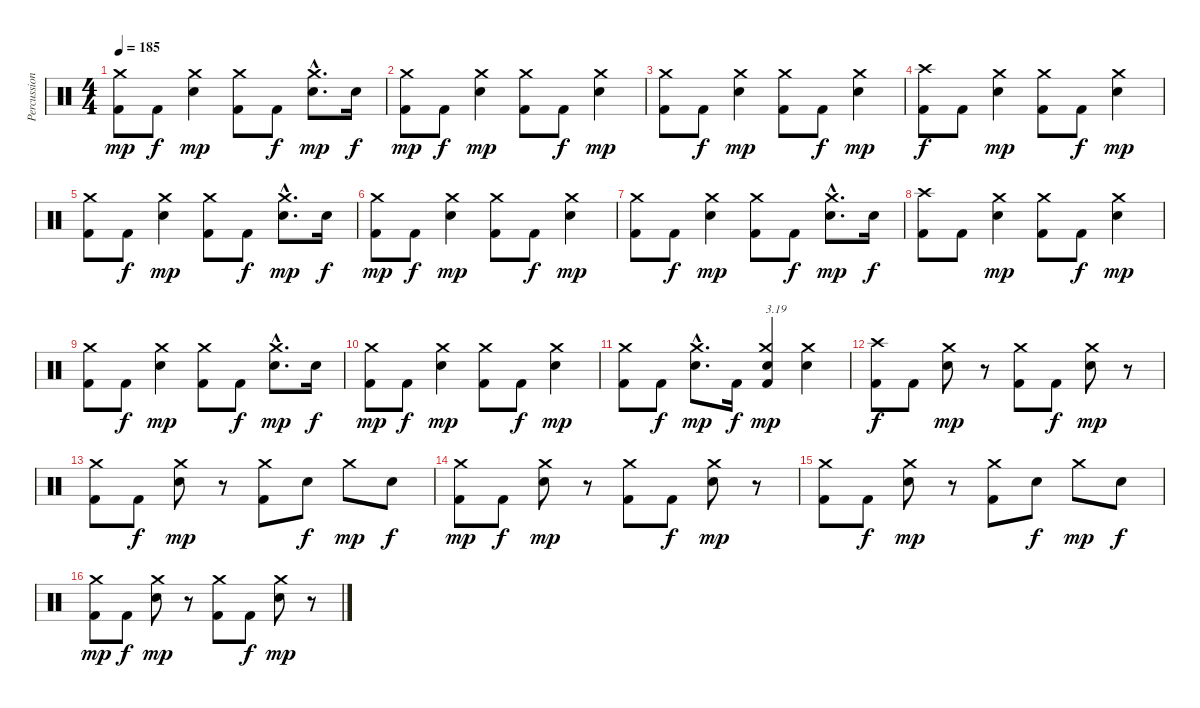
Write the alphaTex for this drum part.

\track ("Percussions" "Percussion") {instrument percussion}
\staff {score}
\articulation defaults
\ts (4 4)
\tempo 185
\clef neutral
\ks c
("Kick (hit) 2" "Crash medium (hit)").8{dy mp} "Kick (hit) 2".8{dy f} ("Electric Snare (hit)" "Crash medium (hit)").4{dy mp} ("Kick (hit) 2" "Crash medium (hit)").8 "Kick (hit) 2".8{dy f} ("Electric Snare (hit)"{hac} "Crash medium (hit)"{hac}).8{d dy mp} "Electric Snare (hit)".16{dy f} |
("Kick (hit) 2" "Crash medium (hit)").8{dy mp} "Kick (hit) 2".8{dy f} ("Electric Snare (hit)" "Crash medium (hit)").4{dy mp} ("Kick (hit) 2" "Crash medium (hit)").8 "Kick (hit) 2".8{dy f} ("Electric Snare (hit)" "Crash medium (hit)").4{dy mp} |
("Kick (hit) 2" "Crash medium (hit)").8 "Kick (hit) 2".8{dy f} ("Electric Snare (hit)" "Crash medium (hit)").4{dy mp} ("Kick (hit) 2" "Crash medium (hit)").8 "Kick (hit) 2".8{dy f} ("Electric Snare (hit)" "Crash medium (hit)").4{dy mp} |
("Kick (hit) 2" "Crash high (hit)").8{dy f} "Kick (hit) 2".8 ("Electric Snare (hit)" "Crash medium (hit)").4{dy mp} ("Kick (hit) 2" "Crash medium (hit)").8 "Kick (hit) 2".8{dy f} ("Electric Snare (hit)" "Crash medium (hit)").4{dy mp} |
("Kick (hit) 2" "Crash medium (hit)").8 "Kick (hit) 2".8{dy f} ("Electric Snare (hit)" "Crash medium (hit)").4{dy mp} ("Kick (hit) 2" "Crash medium (hit)").8 "Kick (hit) 2".8{dy f} ("Electric Snare (hit)"{hac} "Crash medium (hit)"{hac}).8{d dy mp} "Electric Snare (hit)".16{dy f} |
("Kick (hit) 2" "Crash medium (hit)").8{dy mp} "Kick (hit) 2".8{dy f} ("Electric Snare (hit)" "Crash medium (hit)").4{dy mp} ("Kick (hit) 2" "Crash medium (hit)").8 "Kick (hit) 2".8{dy f} ("Electric Snare (hit)" "Crash medium (hit)").4{dy mp} |
("Kick (hit) 2" "Crash medium (hit)").8 "Kick (hit) 2".8{dy f} ("Electric Snare (hit)" "Crash medium (hit)").4{dy mp} ("Kick (hit) 2" "Crash medium (hit)").8 "Kick (hit) 2".8{dy f} ("Electric Snare (hit)"{hac} "Crash medium (hit)"{hac}).8{d dy mp} "Electric Snare (hit)".16{dy f} |
("Kick (hit) 2" "Crash high (hit)").8 "Kick (hit) 2".8 ("Electric Snare (hit)" "Crash medium (hit)").4{dy mp} ("Kick (hit) 2" "Crash medium (hit)").8 "Kick (hit) 2".8{dy f} ("Electric Snare (hit)" "Crash medium (hit)").4{dy mp} |
("Kick (hit) 2" "Crash medium (hit)").8 "Kick (hit) 2".8{dy f} ("Electric Snare (hit)" "Crash medium (hit)").4{dy mp} ("Kick (hit) 2" "Crash medium (hit)").8 "Kick (hit) 2".8{dy f} ("Electric Snare (hit)"{hac} "Crash medium (hit)"{hac}).8{d dy mp} "Electric Snare (hit)".16{dy f} |
("Kick (hit) 2" "Crash medium (hit)").8{dy mp} "Kick (hit) 2".8{dy f} ("Electric Snare (hit)" "Crash medium (hit)").4{dy mp} ("Kick (hit) 2" "Crash medium (hit)").8 "Kick (hit) 2".8{dy f} ("Electric Snare (hit)" "Crash medium (hit)").4{dy mp} |
("Kick (hit) 2" "Crash medium (hit)").8 "Kick (hit) 2".8{dy f} ("Electric Snare (hit)"{hac} "Crash medium (hit)"{hac}).8{d dy mp} "Kick (hit) 2".16{dy f} ("Kick (hit) 2" "Electric Snare (hit)" "Crash medium (hit)").4{txt "3.19" dy mp} ("Electric Snare (hit)" "Crash medium (hit)").4 |
("Kick (hit) 2" "Crash high (hit)").8{dy f} "Kick (hit) 2".8 ("Electric Snare (hit)" "Crash medium (hit)").8{dy mp} r.8 ("Kick (hit) 2" "Crash medium (hit)").8 "Kick (hit) 2".8{dy f} ("Electric Snare (hit)" "Crash medium (hit)").8{dy mp} r.8 |
("Kick (hit) 2" "Crash medium (hit)").8 "Kick (hit) 2".8{dy f} ("Electric Snare (hit)" "Crash medium (hit)").8{dy mp} r.8 ("Kick (hit) 2" "Crash medium (hit)").8 "Electric Snare (hit)".8{dy f} "Crash medium (hit)".8{dy mp} "Electric Snare (hit)".8{dy f} |
("Kick (hit) 2" "Crash medium (hit)").8{dy mp} "Kick (hit) 2".8{dy f} ("Electric Snare (hit)" "Crash medium (hit)").8{dy mp} r.8 ("Kick (hit) 2" "Crash medium (hit)").8 "Kick (hit) 2".8{dy f} ("Electric Snare (hit)" "Crash medium (hit)").8{dy mp} r.8 |
("Kick (hit) 2" "Crash medium (hit)").8 "Kick (hit) 2".8{dy f} ("Electric Snare (hit)" "Crash medium (hit)").8{dy mp} r.8 ("Kick (hit) 2" "Crash medium (hit)").8 "Electric Snare (hit)".8{dy f} "Crash medium (hit)".8{dy mp} "Electric Snare (hit)".8{dy f} |
("Kick (hit) 2" "Crash medium (hit)").8{dy mp} "Kick (hit) 2".8{dy f} ("Electric Snare (hit)" "Crash medium (hit)").8{dy mp} r.8 ("Kick (hit) 2" "Crash medium (hit)").8 "Kick (hit) 2".8{dy f} ("Electric Snare (hit)" "Crash medium (hit)").8{dy mp} r.8
